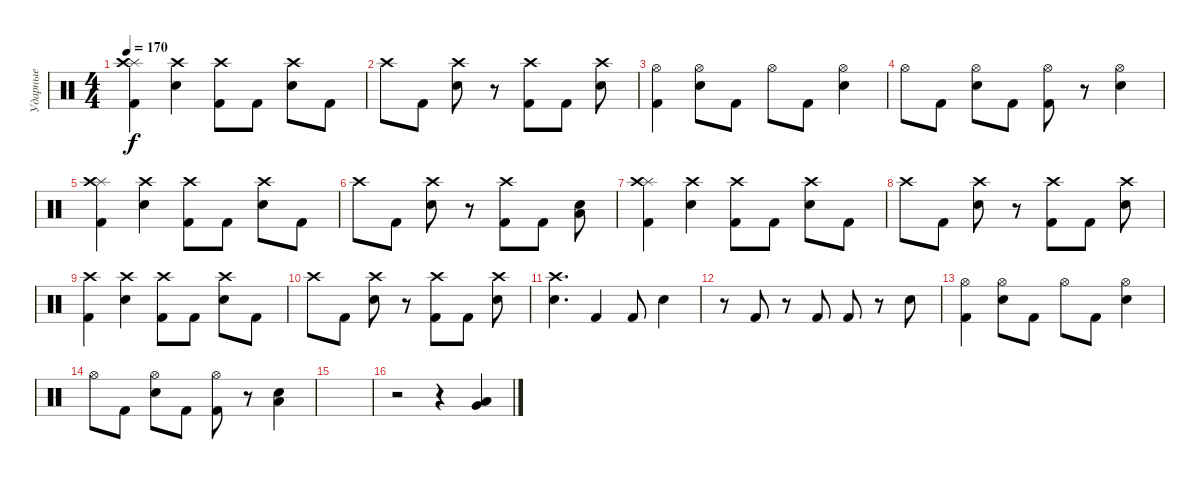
\track ("Ударные" "Ударные") {instrument percussion}
\staff {score}
\articulation defaults
\ts (4 4)
\tempo 170
\clef neutral
\ks c
("Splash (hit)" "Crash high (hit)" "Kick (hit) 2").4{dy f} ("Crash high (hit)" "Snare (hit) 2").4 ("Crash high (hit)" "Kick (hit) 2").8 "Kick (hit) 2".8 ("Crash high (hit)" "Snare (hit) 2").8 "Kick (hit) 2".8 |
"Crash high (hit)".8 "Kick (hit) 2".8 ("Crash high (hit)" "Snare (hit) 2").8 r.8 ("Crash high (hit)" "Kick (hit) 2").8 "Kick (hit) 2".8 ("Crash high (hit)" "Snare (hit) 2").8 |
("Hi-Hat (open)" "Kick (hit) 2").4 ("Hi-Hat (open)" "Snare (hit) 2").8 "Kick (hit) 2".8 "Hi-Hat (open)".8 "Kick (hit) 2".8 ("Hi-Hat (open)" "Snare (hit) 2").4 |
"Hi-Hat (open)".8 "Kick (hit) 2".8 ("Hi-Hat (open)" "Snare (hit) 2").8 "Kick (hit) 2".8 ("Hi-Hat (open)" "Kick (hit) 2").8 r.8 ("Hi-Hat (open)" "Snare (hit) 2").4 |
("Splash (hit)" "Crash high (hit)" "Kick (hit) 2").4 ("Crash high (hit)" "Snare (hit) 2").4 ("Crash high (hit)" "Kick (hit) 2").8 "Kick (hit) 2".8 ("Crash high (hit)" "Snare (hit) 2").8 "Kick (hit) 2".8 |
"Crash high (hit)".8 "Kick (hit) 2".8 ("Crash high (hit)" "Snare (hit) 2").8 r.8 ("Crash high (hit)" "Kick (hit) 2").8 "Kick (hit) 2".8 ("Low Tom (hit)" "Snare (hit) 2").8 |
("Splash (hit)" "Crash high (hit)" "Kick (hit) 2").4 ("Crash high (hit)" "Snare (hit) 2").4 ("Crash high (hit)" "Kick (hit) 2").8 "Kick (hit) 2".8 ("Crash high (hit)" "Snare (hit) 2").8 "Kick (hit) 2".8 |
"Crash high (hit)".8 "Kick (hit) 2".8 ("Crash high (hit)" "Snare (hit) 2").8 r.8 ("Crash high (hit)" "Kick (hit) 2").8 "Kick (hit) 2".8 ("Crash high (hit)" "Snare (hit) 2").8 |
("Crash high (hit)" "Kick (hit) 2").4 ("Crash high (hit)" "Snare (hit) 2").4 ("Crash high (hit)" "Kick (hit) 2").8 "Kick (hit) 2".8 ("Crash high (hit)" "Snare (hit) 2").8 "Kick (hit) 2".8 |
"Crash high (hit)".8 "Kick (hit) 2".8 ("Crash high (hit)" "Snare (hit) 2").8 r.8 ("Crash high (hit)" "Kick (hit) 2").8 "Kick (hit) 2".8 ("Crash high (hit)" "Snare (hit) 2").8 |
("Crash high (hit)" "Snare (hit) 2").4{d} "Kick (hit) 2".4 "Kick (hit) 2".8 "Snare (hit) 2".4 |
r.8 "Kick (hit) 2".8 r.8 "Kick (hit) 2".8 "Kick (hit) 2".8 r.8 "Snare (hit) 2".8 |
("Hi-Hat (open)" "Kick (hit) 2").4 ("Hi-Hat (open)" "Snare (hit) 2").8 "Kick (hit) 2".8 "Hi-Hat (open)".8 "Kick (hit) 2".8 ("Hi-Hat (open)" "Snare (hit) 2").4 |
"Hi-Hat (open)".8 "Kick (hit) 2".8 ("Hi-Hat (open)" "Snare (hit) 2").8 "Kick (hit) 2".8 ("Hi-Hat (open)" "Kick (hit) 2").8 r.8 ("Low Tom (hit)" "Snare (hit) 2").4 |
|
r.2 r.4 ("Low Tom (hit)" "Very Low Tom (hit)").4
